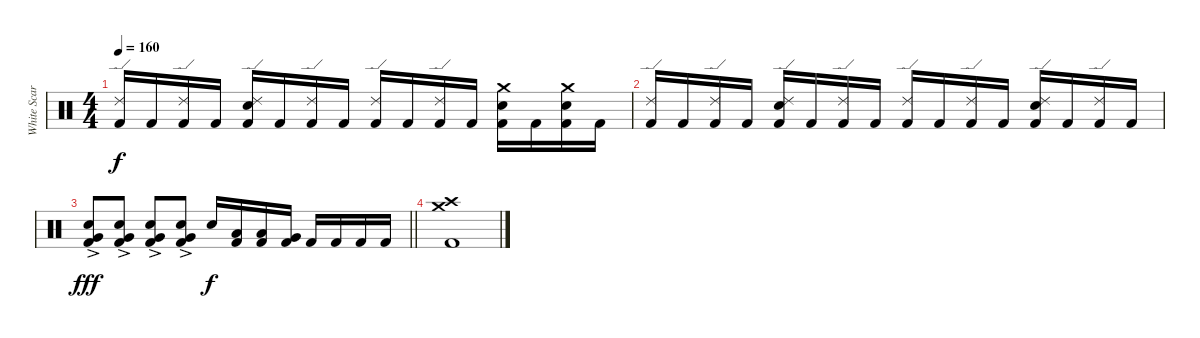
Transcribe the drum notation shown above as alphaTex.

\track ("White Scar" "White Scar") {instrument percussion}
\staff {score}
\articulation defaults
\ts (4 4)
\tempo 160
\clef neutral
\ks c
("Ride (edge) 2" "Kick (hit) 2").16{dy f} "Kick (hit) 2".16 ("Ride (edge) 2" "Kick (hit) 2").16 "Kick (hit) 2".16 ("Ride (edge) 2" "Snare (hit) 2" "Kick (hit) 2").16 "Kick (hit) 2".16 ("Ride (edge) 2" "Kick (hit) 2").16 "Kick (hit) 2".16 ("Ride (edge) 2" "Kick (hit) 2").16 "Kick (hit) 2".16 ("Ride (edge) 2" "Kick (hit) 2").16 "Kick (hit) 2".16 ("Crash medium (hit)" "Snare (hit) 2" "Kick (hit) 2").16 "Kick (hit) 2".16 ("Crash medium (hit)" "Snare (hit) 2" "Kick (hit) 2").16 "Kick (hit) 2".16 |
("Ride (edge) 2" "Kick (hit) 2").16 "Kick (hit) 2".16 ("Ride (edge) 2" "Kick (hit) 2").16 "Kick (hit) 2".16 ("Ride (edge) 2" "Snare (hit) 2" "Kick (hit) 2").16 "Kick (hit) 2".16 ("Ride (edge) 2" "Kick (hit) 2").16 "Kick (hit) 2".16 ("Ride (edge) 2" "Kick (hit) 2").16 "Kick (hit) 2".16 ("Ride (edge) 2" "Kick (hit) 2").16 "Kick (hit) 2".16 ("Ride (edge) 2" "Snare (hit) 2" "Kick (hit) 2").16 "Kick (hit) 2".16 ("Ride (edge) 2" "Kick (hit) 2").16 "Kick (hit) 2".16 |
\barLineRight lightlight
("Very Low Tom (hit)"{ac} "Snare (hit) 2" "Kick (hit) 2").8{dy fff} ("Very Low Tom (hit)"{ac} "Snare (hit) 2" "Kick (hit) 2").8 ("Very Low Tom (hit)"{ac} "Snare (hit) 2" "Kick (hit) 2").8 ("Very Low Tom (hit)"{ac} "Snare (hit) 2" "Kick (hit) 2").8 "Snare (hit) 2".16{dy f} ("Low Tom (hit)" "Kick (hit) 2").16 ("Low Tom (hit)" "Kick (hit) 2").16 ("Very Low Tom (hit)" "Kick (hit) 2").16 "Kick (hit) 2".16 "Kick (hit) 2".16 "Kick (hit) 2".16 "Kick (hit) 2".16 |
("Crash medium (hit)" "Crash high (hit)" "Kick (hit) 2").1
